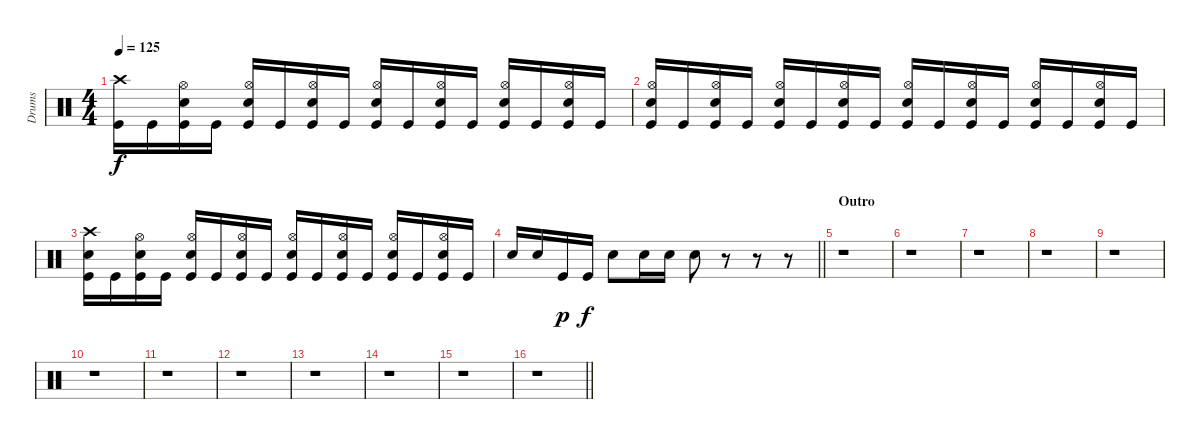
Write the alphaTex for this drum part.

\track ("Drums" "Drums") {instrument percussion}
\staff {score}
\articulation defaults
\ts (4 4)
\tempo 125
\clef neutral
\ks c
("Crash high (hit)" "Kick (hit)").16{dy f} "Kick (hit)".16 ("Hi-Hat (open)" "Electric Snare (hit)" "Kick (hit)").16 "Kick (hit)".16 ("Hi-Hat (open)" "Electric Snare (hit)" "Kick (hit)").16 "Kick (hit)".16 ("Hi-Hat (open)" "Electric Snare (hit)" "Kick (hit)").16 "Kick (hit)".16 ("Hi-Hat (open)" "Electric Snare (hit)" "Kick (hit)").16 "Kick (hit)".16 ("Hi-Hat (open)" "Electric Snare (hit)" "Kick (hit)").16 "Kick (hit)".16 ("Hi-Hat (open)" "Electric Snare (hit)" "Kick (hit)").16 "Kick (hit)".16 ("Hi-Hat (open)" "Electric Snare (hit)" "Kick (hit)").16 "Kick (hit)".16 |
("Hi-Hat (open)" "Electric Snare (hit)" "Kick (hit)").16 "Kick (hit)".16 ("Hi-Hat (open)" "Electric Snare (hit)" "Kick (hit)").16 "Kick (hit)".16 ("Hi-Hat (open)" "Electric Snare (hit)" "Kick (hit)").16 "Kick (hit)".16 ("Hi-Hat (open)" "Electric Snare (hit)" "Kick (hit)").16 "Kick (hit)".16 ("Hi-Hat (open)" "Electric Snare (hit)" "Kick (hit)").16 "Kick (hit)".16 ("Hi-Hat (open)" "Electric Snare (hit)" "Kick (hit)").16 "Kick (hit)".16 ("Hi-Hat (open)" "Electric Snare (hit)" "Kick (hit)").16 "Kick (hit)".16 ("Hi-Hat (open)" "Electric Snare (hit)" "Kick (hit)").16 "Kick (hit)".16 |
("Crash high (hit)" "Electric Snare (hit)" "Kick (hit)").16 "Kick (hit)".16 ("Hi-Hat (open)" "Electric Snare (hit)" "Kick (hit)").16 "Kick (hit)".16 ("Hi-Hat (open)" "Electric Snare (hit)" "Kick (hit)").16 "Kick (hit)".16 ("Hi-Hat (open)" "Electric Snare (hit)" "Kick (hit)").16 "Kick (hit)".16 ("Hi-Hat (open)" "Electric Snare (hit)" "Kick (hit)").16 "Kick (hit)".16 ("Hi-Hat (open)" "Electric Snare (hit)" "Kick (hit)").16 "Kick (hit)".16 ("Hi-Hat (open)" "Electric Snare (hit)" "Kick (hit)").16 "Kick (hit)".16 ("Hi-Hat (open)" "Electric Snare (hit)" "Kick (hit)").16 "Kick (hit)".16 |
\barLineRight lightlight "Electric Snare (hit)".16 "Electric Snare (hit)".16 "Kick (hit)".16{dy p} "Kick (hit)".16{dy f} "Electric Snare (hit)".8 "Electric Snare (hit)".16 "Electric Snare (hit)".16 "Electric Snare (hit)".8
r.8 r.8 r.8 |
\section ("" "Outro")
r.1 |
r.1 |
r.1 |
r.1 |
r.1 |
r.1 |
r.1 |
r.1 |
r.1 |
r.1 |
r.1 |
\barLineRight lightlight
r.1
